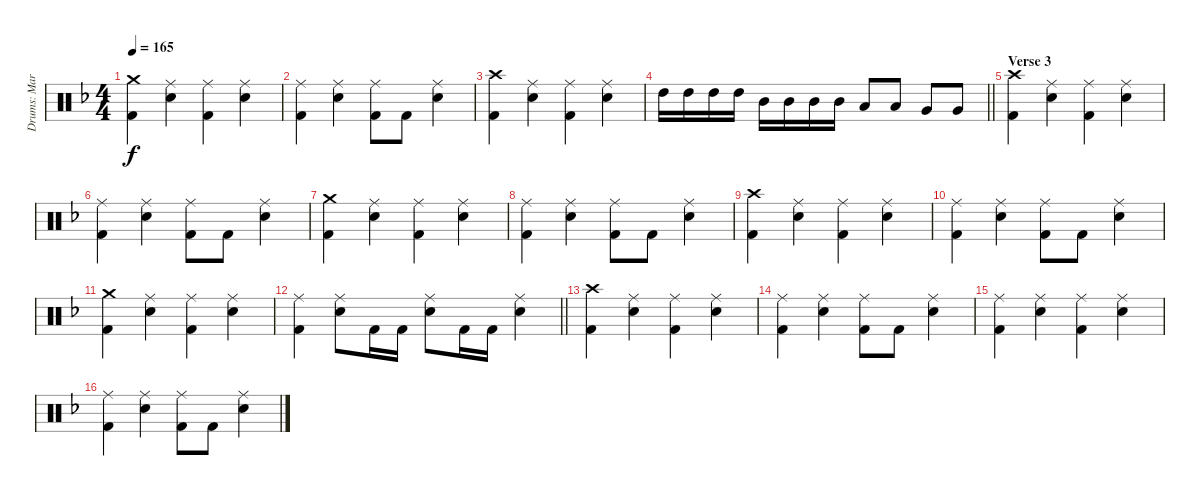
\track ("Drums: Martin Herzinger" "Drums: Mar") {instrument percussion}
\staff {score}
\articulation defaults
\ts (4 4)
\tempo 165
\clef neutral
\ks dminor
("Crash medium (hit)" "Kick (hit) 2").4{dy f} ("Ride (middle)" "Snare (hit) 2").4 ("Ride (middle)" "Kick (hit) 2").4 ("Ride (middle)" "Snare (hit) 2").4 |
("Ride (middle)" "Kick (hit) 2").4 ("Ride (middle)" "Snare (hit) 2").4 ("Ride (middle)" "Kick (hit) 2").8 "Kick (hit) 2".8 ("Ride (middle)" "Snare (hit) 2").4 |
("Crash high (hit)" "Kick (hit) 2").4 ("Ride (middle)" "Snare (hit) 2").4 ("Ride (middle)" "Kick (hit) 2").4 ("Ride (middle)" "Snare (hit) 2").4 |
\barLineRight lightlight "High Tom (hit)".16 "High Tom (hit)".16 "High Tom (hit)".16 "High Tom (hit)".16 "Mid Tom (hit)".16 "Mid Tom (hit)".16 "Mid Tom (hit)".16 "Mid Tom (hit)".16 "Low Tom (hit)".8 "Low Tom (hit)".8 "Very Low Tom (hit)".8 "Very Low Tom (hit)".8
|
\section ("" "Verse 3")
("Crash high (hit)" "Kick (hit) 2").4 ("Ride (middle)" "Snare (hit) 2").4 ("Ride (middle)" "Kick (hit) 2").4 ("Ride (middle)" "Snare (hit) 2").4 |
("Ride (middle)" "Kick (hit) 2").4 ("Ride (middle)" "Snare (hit) 2").4 ("Ride (middle)" "Kick (hit) 2").8 "Kick (hit) 2".8 ("Ride (middle)" "Snare (hit) 2").4 |
("Crash medium (hit)" "Kick (hit) 2").4 ("Ride (middle)" "Snare (hit) 2").4 ("Ride (middle)" "Kick (hit) 2").4 ("Ride (middle)" "Snare (hit) 2").4 |
("Ride (middle)" "Kick (hit) 2").4 ("Ride (middle)" "Snare (hit) 2").4 ("Ride (middle)" "Kick (hit) 2").8 "Kick (hit) 2".8 ("Ride (middle)" "Snare (hit) 2").4 |
("Crash high (hit)" "Kick (hit) 2").4 ("Ride (middle)" "Snare (hit) 2").4 ("Ride (middle)" "Kick (hit) 2").4 ("Ride (middle)" "Snare (hit) 2").4 |
("Ride (middle)" "Kick (hit) 2").4 ("Ride (middle)" "Snare (hit) 2").4 ("Ride (middle)" "Kick (hit) 2").8 "Kick (hit) 2".8 ("Ride (middle)" "Snare (hit) 2").4 |
("Crash medium (hit)" "Kick (hit) 2").4 ("Ride (middle)" "Snare (hit) 2").4 ("Ride (middle)" "Kick (hit) 2").4 ("Ride (middle)" "Snare (hit) 2").4 |
\barLineRight lightlight
("Ride (middle)" "Kick (hit) 2").4 ("Ride (middle)" "Snare (hit) 2").8 "Kick (hit) 2".16 "Kick (hit) 2".16 ("Ride (middle)" "Snare (hit) 2").8 "Kick (hit) 2".16 "Kick (hit) 2".16 ("Ride (middle)" "Snare (hit) 2").4 |
("Crash high (hit)" "Kick (hit) 2").4 ("Ride (middle)" "Snare (hit) 2").4 ("Ride (middle)" "Kick (hit) 2").4 ("Ride (middle)" "Snare (hit) 2").4 |
("Ride (middle)" "Kick (hit) 2").4 ("Ride (middle)" "Snare (hit) 2").4 ("Ride (middle)" "Kick (hit) 2").8 "Kick (hit) 2".8 ("Ride (middle)" "Snare (hit) 2").4 |
("Ride (middle)" "Kick (hit) 2").4 ("Ride (middle)" "Snare (hit) 2").4 ("Ride (middle)" "Kick (hit) 2").4 ("Ride (middle)" "Snare (hit) 2").4 |
("Ride (middle)" "Kick (hit) 2").4 ("Ride (middle)" "Snare (hit) 2").4 ("Ride (middle)" "Kick (hit) 2").8 "Kick (hit) 2".8 ("Ride (middle)" "Snare (hit) 2").4
